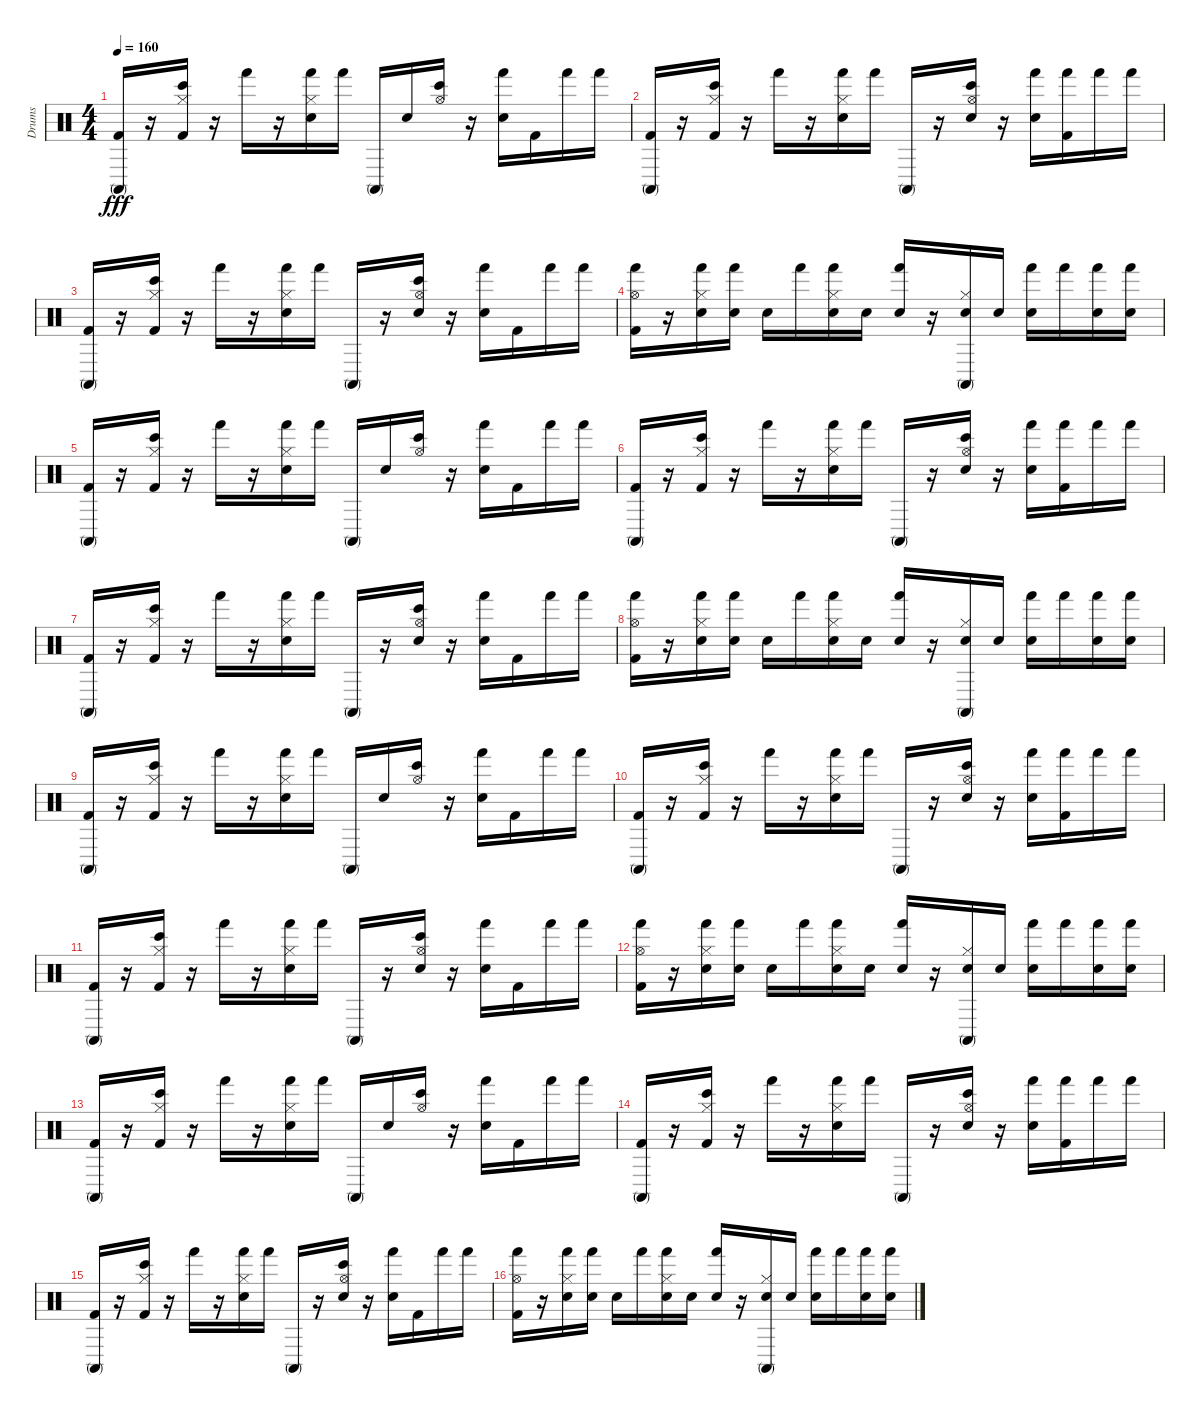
\track ("Drums" "Drums") {instrument percussion}
\staff {score}
\articulation defaults
\ts (4 4)
\tempo 160
\clef neutral
\ks c
("Conga high (mute)" "Kick (hit) 2").16{dy fff} r.16 ("Hi-Hat (closed)" "Kick (hit) 2" "Bongo High (hit)").16 r.16 "Hand (hit)".16 r.16 ("Hi-Hat (closed)" "Hand (hit)" "Electric Snare (hit)").16 "Hand (hit)".16 "Conga high (mute)".16 "Electric Snare (hit)".16 ("Hi-Hat (open)" "Bongo High (hit)").16 r.16 ("Hand (hit)" "Electric Snare (hit)").16 "Kick (hit) 2".16 "Hand (hit)".16 "Hand (hit)".16 |
("Kick (hit) 2" "Conga high (mute)").16 r.16 ("Bongo High (hit)" "Kick (hit) 2" "Hi-Hat (closed)").16 r.16 "Hand (hit)".16 r.16 ("Hi-Hat (closed)" "Electric Snare (hit)" "Hand (hit)").16 "Hand (hit)".16 "Conga high (mute)".16 r.16 ("Hi-Hat (open)" "Electric Snare (hit)" "Bongo High (hit)").16 r.16 ("Electric Snare (hit)" "Hand (hit)").16 ("Hand (hit)" "Kick (hit) 2").16 "Hand (hit)".16 "Hand (hit)".16 |
("Kick (hit) 2" "Conga high (mute)").16 r.16 ("Kick (hit) 2" "Hi-Hat (closed)" "Bongo High (hit)").16 r.16 "Hand (hit)".16 r.16 ("Hi-Hat (closed)" "Hand (hit)" "Electric Snare (hit)").16 "Hand (hit)".16 "Conga high (mute)".16 r.16 ("Bongo High (hit)" "Hi-Hat (open)" "Electric Snare (hit)").16 r.16 ("Electric Snare (hit)" "Hand (hit)").16 "Kick (hit) 2".16 "Hand (hit)".16 "Hand (hit)".16 |
("Hi-Hat (open)" "Kick (hit) 2" "Hand (hit)").16 r.16 ("Hi-Hat (closed)" "Hand (hit)" "Electric Snare (hit)").16 ("Electric Snare (hit)" "Hand (hit)").16 "Electric Snare (hit)".16 "Hand (hit)".16 ("Electric Snare (hit)" "Hand (hit)" "Hi-Hat (closed)").16 "Electric Snare (hit)".16 ("Electric Snare (hit)" "Hand (hit)").16 r.16 ("Electric Snare (hit)" "Hi-Hat (closed)" "Conga high (mute)").16 "Electric Snare (hit)".16 ("Electric Snare (hit)" "Hand (hit)").16 "Hand (hit)".16 ("Electric Snare (hit)" "Hand (hit)").16 ("Electric Snare (hit)" "Hand (hit)").16 |
("Kick (hit) 2" "Conga high (mute)").16 r.16 ("Hi-Hat (closed)" "Kick (hit) 2" "Bongo High (hit)").16 r.16 "Hand (hit)".16 r.16 ("Hand (hit)" "Hi-Hat (closed)" "Electric Snare (hit)").16 "Hand (hit)".16 "Conga high (mute)".16 "Electric Snare (hit)".16 ("Hi-Hat (open)" "Bongo High (hit)").16 r.16 ("Electric Snare (hit)" "Hand (hit)").16 "Kick (hit) 2".16 "Hand (hit)".16 "Hand (hit)".16 |
("Conga high (mute)" "Kick (hit) 2").16 r.16 ("Bongo High (hit)" "Hi-Hat (closed)" "Kick (hit) 2").16 r.16 "Hand (hit)".16 r.16 ("Electric Snare (hit)" "Hand (hit)" "Hi-Hat (closed)").16 "Hand (hit)".16 "Conga high (mute)".16 r.16 ("Hi-Hat (open)" "Bongo High (hit)" "Electric Snare (hit)").16 r.16 ("Hand (hit)" "Electric Snare (hit)").16 ("Kick (hit) 2" "Hand (hit)").16 "Hand (hit)".16 "Hand (hit)".16 |
("Kick (hit) 2" "Conga high (mute)").16 r.16 ("Hi-Hat (closed)" "Bongo High (hit)" "Kick (hit) 2").16 r.16 "Hand (hit)".16 r.16 ("Electric Snare (hit)" "Hand (hit)" "Hi-Hat (closed)").16 "Hand (hit)".16 "Conga high (mute)".16 r.16 ("Electric Snare (hit)" "Hi-Hat (open)" "Bongo High (hit)").16 r.16 ("Electric Snare (hit)" "Hand (hit)").16 "Kick (hit) 2".16 "Hand (hit)".16 "Hand (hit)".16 |
("Hand (hit)" "Kick (hit) 2" "Hi-Hat (open)").16 r.16 ("Hand (hit)" "Electric Snare (hit)" "Hi-Hat (closed)").16 ("Electric Snare (hit)" "Hand (hit)").16 "Electric Snare (hit)".16 "Hand (hit)".16 ("Electric Snare (hit)" "Hi-Hat (closed)" "Hand (hit)").16 "Electric Snare (hit)".16 ("Electric Snare (hit)" "Hand (hit)").16 r.16 ("Electric Snare (hit)" "Conga high (mute)" "Hi-Hat (closed)").16 "Electric Snare (hit)".16 ("Hand (hit)" "Electric Snare (hit)").16 "Hand (hit)".16 ("Hand (hit)" "Electric Snare (hit)").16 ("Electric Snare (hit)" "Hand (hit)").16 |
("Kick (hit) 2" "Conga high (mute)").16 r.16 ("Hi-Hat (closed)" "Bongo High (hit)" "Kick (hit) 2").16 r.16 "Hand (hit)".16 r.16 ("Hand (hit)" "Hi-Hat (closed)" "Electric Snare (hit)").16 "Hand (hit)".16 "Conga high (mute)".16 "Electric Snare (hit)".16 ("Bongo High (hit)" "Hi-Hat (open)").16 r.16 ("Hand (hit)" "Electric Snare (hit)").16 "Kick (hit) 2".16 "Hand (hit)".16 "Hand (hit)".16 |
("Conga high (mute)" "Kick (hit) 2").16 r.16 ("Kick (hit) 2" "Bongo High (hit)" "Hi-Hat (closed)").16 r.16 "Hand (hit)".16 r.16 ("Hi-Hat (closed)" "Hand (hit)" "Electric Snare (hit)").16 "Hand (hit)".16 "Conga high (mute)".16 r.16 ("Bongo High (hit)" "Hi-Hat (open)" "Electric Snare (hit)").16 r.16 ("Hand (hit)" "Electric Snare (hit)").16 ("Kick (hit) 2" "Hand (hit)").16 "Hand (hit)".16 "Hand (hit)".16 |
("Kick (hit) 2" "Conga high (mute)").16 r.16 ("Hi-Hat (closed)" "Bongo High (hit)" "Kick (hit) 2").16 r.16 "Hand (hit)".16 r.16 ("Hi-Hat (closed)" "Electric Snare (hit)" "Hand (hit)").16 "Hand (hit)".16 "Conga high (mute)".16 r.16 ("Electric Snare (hit)" "Bongo High (hit)" "Hi-Hat (open)").16 r.16 ("Hand (hit)" "Electric Snare (hit)").16 "Kick (hit) 2".16 "Hand (hit)".16 "Hand (hit)".16 |
("Hi-Hat (open)" "Kick (hit) 2" "Hand (hit)").16 r.16 ("Hi-Hat (closed)" "Electric Snare (hit)" "Hand (hit)").16 ("Hand (hit)" "Electric Snare (hit)").16 "Electric Snare (hit)".16 "Hand (hit)".16 ("Hi-Hat (closed)" "Hand (hit)" "Electric Snare (hit)").16 "Electric Snare (hit)".16 ("Electric Snare (hit)" "Hand (hit)").16 r.16 ("Electric Snare (hit)" "Hi-Hat (closed)" "Conga high (mute)").16 "Electric Snare (hit)".16 ("Hand (hit)" "Electric Snare (hit)").16 "Hand (hit)".16 ("Electric Snare (hit)" "Hand (hit)").16 ("Hand (hit)" "Electric Snare (hit)").16 |
("Conga high (mute)" "Kick (hit) 2").16 r.16 ("Hi-Hat (closed)" "Bongo High (hit)" "Kick (hit) 2").16 r.16 "Hand (hit)".16 r.16 ("Hand (hit)" "Electric Snare (hit)" "Hi-Hat (closed)").16 "Hand (hit)".16 "Conga high (mute)".16 "Electric Snare (hit)".16 ("Bongo High (hit)" "Hi-Hat (open)").16 r.16 ("Electric Snare (hit)" "Hand (hit)").16 "Kick (hit) 2".16 "Hand (hit)".16 "Hand (hit)".16 |
("Conga high (mute)" "Kick (hit) 2").16 r.16 ("Hi-Hat (closed)" "Kick (hit) 2" "Bongo High (hit)").16 r.16 "Hand (hit)".16 r.16 ("Hi-Hat (closed)" "Hand (hit)" "Electric Snare (hit)").16 "Hand (hit)".16 "Conga high (mute)".16 r.16 ("Electric Snare (hit)" "Bongo High (hit)" "Hi-Hat (open)").16 r.16 ("Electric Snare (hit)" "Hand (hit)").16 ("Kick (hit) 2" "Hand (hit)").16 "Hand (hit)".16 "Hand (hit)".16 |
("Conga high (mute)" "Kick (hit) 2").16 r.16 ("Bongo High (hit)" "Kick (hit) 2" "Hi-Hat (closed)").16 r.16 "Hand (hit)".16 r.16 ("Hi-Hat (closed)" "Electric Snare (hit)" "Hand (hit)").16 "Hand (hit)".16 "Conga high (mute)".16 r.16 ("Hi-Hat (open)" "Bongo High (hit)" "Electric Snare (hit)").16 r.16 ("Electric Snare (hit)" "Hand (hit)").16 "Kick (hit) 2".16 "Hand (hit)".16 "Hand (hit)".16 |
("Kick (hit) 2" "Hand (hit)" "Hi-Hat (open)").16 r.16 ("Hand (hit)" "Hi-Hat (closed)" "Electric Snare (hit)").16 ("Hand (hit)" "Electric Snare (hit)").16 "Electric Snare (hit)".16 "Hand (hit)".16 ("Hi-Hat (closed)" "Electric Snare (hit)" "Hand (hit)").16 "Electric Snare (hit)".16 ("Electric Snare (hit)" "Hand (hit)").16 r.16 ("Electric Snare (hit)" "Hi-Hat (closed)" "Conga high (mute)").16 "Electric Snare (hit)".16 ("Hand (hit)" "Electric Snare (hit)").16 "Hand (hit)".16 ("Hand (hit)" "Electric Snare (hit)").16 ("Hand (hit)" "Electric Snare (hit)").16
